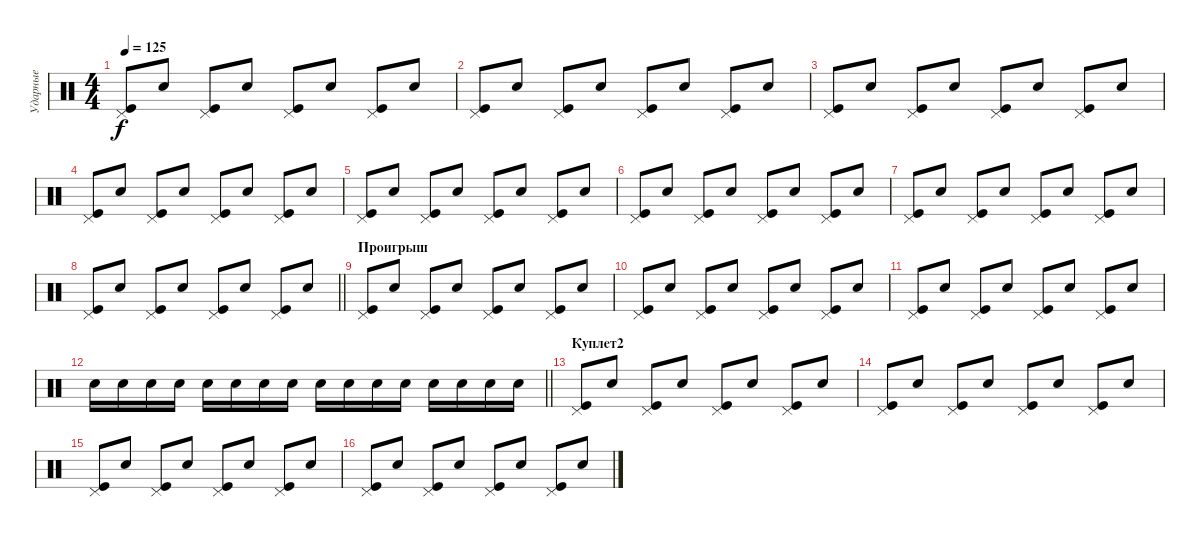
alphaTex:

\track ("Ударные" "Ударные") {instrument percussion}
\staff {score}
\articulation defaults
\ts (4 4)
\tempo 125
\clef neutral
\ks c
("Pedal Hi-Hat (hit)" "Kick (hit)").8{dy f} "Snare (hit) 2".8 ("Pedal Hi-Hat (hit)" "Kick (hit)").8 "Snare (hit) 2".8 ("Pedal Hi-Hat (hit)" "Kick (hit)").8 "Snare (hit) 2".8 ("Pedal Hi-Hat (hit)" "Kick (hit)").8 "Snare (hit) 2".8 |
("Pedal Hi-Hat (hit)" "Kick (hit)").8 "Snare (hit) 2".8 ("Pedal Hi-Hat (hit)" "Kick (hit)").8 "Snare (hit) 2".8 ("Pedal Hi-Hat (hit)" "Kick (hit)").8 "Snare (hit) 2".8 ("Pedal Hi-Hat (hit)" "Kick (hit)").8 "Snare (hit) 2".8 |
("Pedal Hi-Hat (hit)" "Kick (hit)").8 "Snare (hit) 2".8 ("Pedal Hi-Hat (hit)" "Kick (hit)").8 "Snare (hit) 2".8 ("Pedal Hi-Hat (hit)" "Kick (hit)").8 "Snare (hit) 2".8 ("Pedal Hi-Hat (hit)" "Kick (hit)").8 "Snare (hit) 2".8 |
("Pedal Hi-Hat (hit)" "Kick (hit)").8 "Snare (hit) 2".8 ("Pedal Hi-Hat (hit)" "Kick (hit)").8 "Snare (hit) 2".8 ("Pedal Hi-Hat (hit)" "Kick (hit)").8 "Snare (hit) 2".8 ("Pedal Hi-Hat (hit)" "Kick (hit)").8 "Snare (hit) 2".8 |
("Pedal Hi-Hat (hit)" "Kick (hit)").8 "Snare (hit) 2".8 ("Pedal Hi-Hat (hit)" "Kick (hit)").8 "Snare (hit) 2".8 ("Pedal Hi-Hat (hit)" "Kick (hit)").8 "Snare (hit) 2".8 ("Pedal Hi-Hat (hit)" "Kick (hit)").8 "Snare (hit) 2".8 |
("Pedal Hi-Hat (hit)" "Kick (hit)").8 "Snare (hit) 2".8 ("Pedal Hi-Hat (hit)" "Kick (hit)").8 "Snare (hit) 2".8 ("Pedal Hi-Hat (hit)" "Kick (hit)").8 "Snare (hit) 2".8 ("Pedal Hi-Hat (hit)" "Kick (hit)").8 "Snare (hit) 2".8 |
("Pedal Hi-Hat (hit)" "Kick (hit)").8 "Snare (hit) 2".8 ("Pedal Hi-Hat (hit)" "Kick (hit)").8 "Snare (hit) 2".8 ("Pedal Hi-Hat (hit)" "Kick (hit)").8 "Snare (hit) 2".8 ("Pedal Hi-Hat (hit)" "Kick (hit)").8 "Snare (hit) 2".8 |
\barLineRight lightlight
("Pedal Hi-Hat (hit)" "Kick (hit)").8 "Snare (hit) 2".8 ("Pedal Hi-Hat (hit)" "Kick (hit)").8 "Snare (hit) 2".8 ("Pedal Hi-Hat (hit)" "Kick (hit)").8 "Snare (hit) 2".8 ("Pedal Hi-Hat (hit)" "Kick (hit)").8 "Snare (hit) 2".8 |
\section ("" "Проигрыш")
("Pedal Hi-Hat (hit)" "Kick (hit)").8 "Snare (hit) 2".8 ("Pedal Hi-Hat (hit)" "Kick (hit)").8 "Snare (hit) 2".8 ("Pedal Hi-Hat (hit)" "Kick (hit)").8 "Snare (hit) 2".8 ("Pedal Hi-Hat (hit)" "Kick (hit)").8 "Snare (hit) 2".8 |
("Pedal Hi-Hat (hit)" "Kick (hit)").8 "Snare (hit) 2".8 ("Pedal Hi-Hat (hit)" "Kick (hit)").8 "Snare (hit) 2".8 ("Pedal Hi-Hat (hit)" "Kick (hit)").8 "Snare (hit) 2".8 ("Pedal Hi-Hat (hit)" "Kick (hit)").8 "Snare (hit) 2".8 |
("Pedal Hi-Hat (hit)" "Kick (hit)").8 "Snare (hit) 2".8 ("Pedal Hi-Hat (hit)" "Kick (hit)").8 "Snare (hit) 2".8 ("Pedal Hi-Hat (hit)" "Kick (hit)").8 "Snare (hit) 2".8 ("Pedal Hi-Hat (hit)" "Kick (hit)").8 "Snare (hit) 2".8 |
\barLineRight lightlight "Electric Snare (hit)".16 "Electric Snare (hit)".16 "Electric Snare (hit)".16 "Electric Snare (hit)".16 "Electric Snare (hit)".16 "Electric Snare (hit)".16 "Electric Snare (hit)".16 "Electric Snare (hit)".16 "Electric Snare (hit)".16 "Electric Snare (hit)".16 "Electric Snare (hit)".16 "Electric Snare (hit)".16 "Electric Snare (hit)".16 "Electric Snare (hit)".16 "Electric Snare (hit)".16 "Electric Snare (hit)".16
|
\section ("" "Куплет2")
("Pedal Hi-Hat (hit)" "Kick (hit)").8 "Snare (hit) 2".8 ("Pedal Hi-Hat (hit)" "Kick (hit)").8 "Snare (hit) 2".8 ("Pedal Hi-Hat (hit)" "Kick (hit)").8 "Snare (hit) 2".8 ("Pedal Hi-Hat (hit)" "Kick (hit)").8 "Snare (hit) 2".8 |
("Pedal Hi-Hat (hit)" "Kick (hit)").8 "Snare (hit) 2".8 ("Pedal Hi-Hat (hit)" "Kick (hit)").8 "Snare (hit) 2".8 ("Pedal Hi-Hat (hit)" "Kick (hit)").8 "Snare (hit) 2".8 ("Pedal Hi-Hat (hit)" "Kick (hit)").8 "Snare (hit) 2".8 |
("Pedal Hi-Hat (hit)" "Kick (hit)").8 "Snare (hit) 2".8 ("Pedal Hi-Hat (hit)" "Kick (hit)").8 "Snare (hit) 2".8 ("Pedal Hi-Hat (hit)" "Kick (hit)").8 "Snare (hit) 2".8 ("Pedal Hi-Hat (hit)" "Kick (hit)").8 "Snare (hit) 2".8 |
("Pedal Hi-Hat (hit)" "Kick (hit)").8 "Snare (hit) 2".8 ("Pedal Hi-Hat (hit)" "Kick (hit)").8 "Snare (hit) 2".8 ("Pedal Hi-Hat (hit)" "Kick (hit)").8 "Snare (hit) 2".8 ("Pedal Hi-Hat (hit)" "Kick (hit)").8 "Snare (hit) 2".8
